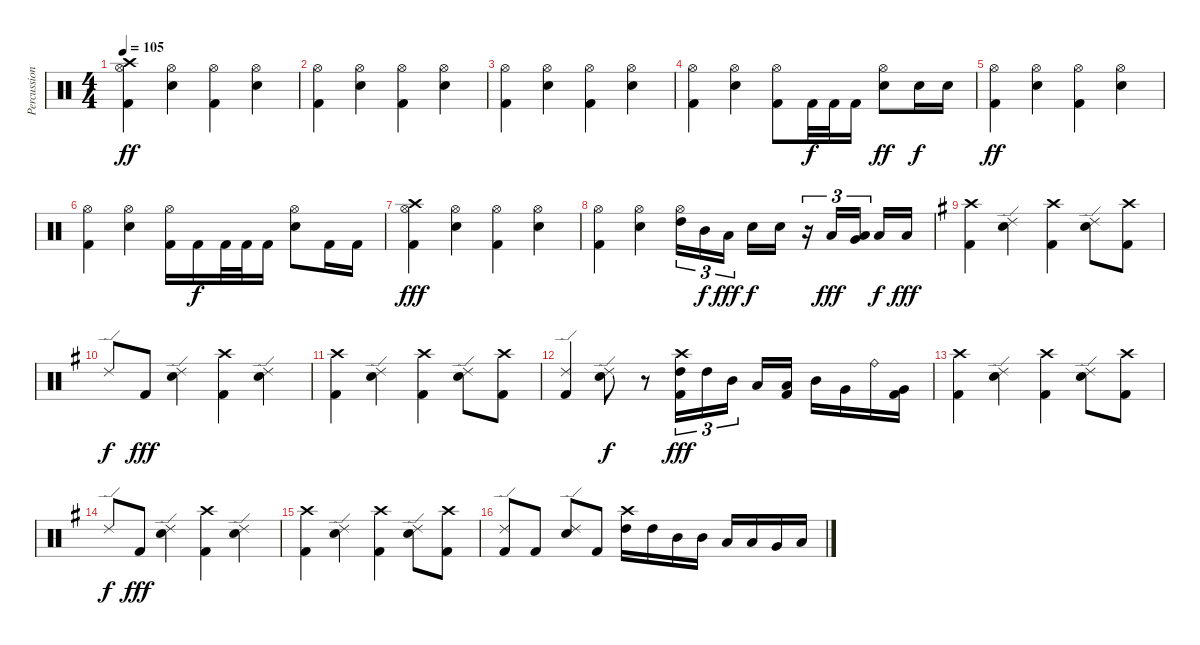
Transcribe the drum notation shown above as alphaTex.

\track ("Percussion" "Percussion") {instrument percussion}
\staff {score}
\articulation defaults
\ts (4 4)
\tempo 105
\clef neutral
\ks c
("Crash high (hit)" "Hi-Hat (open)" "Kick (hit) 2").4{dy ff} ("Hi-Hat (open)" "Electric Snare (hit)").4 ("Hi-Hat (open)" "Kick (hit) 2").4 ("Hi-Hat (open)" "Electric Snare (hit)").4 |
("Hi-Hat (open)" "Kick (hit) 2").4 ("Hi-Hat (open)" "Electric Snare (hit)").4 ("Hi-Hat (open)" "Kick (hit) 2").4 ("Hi-Hat (open)" "Electric Snare (hit)").4 |
("Hi-Hat (open)" "Kick (hit) 2").4 ("Hi-Hat (open)" "Electric Snare (hit)").4 ("Hi-Hat (open)" "Kick (hit) 2").4 ("Hi-Hat (open)" "Electric Snare (hit)").4 |
("Hi-Hat (open)" "Kick (hit) 2").4 ("Hi-Hat (open)" "Electric Snare (hit)").4 ("Hi-Hat (open)" "Kick (hit) 2").8 "Kick (hit) 2".32{dy f} "Kick (hit) 2".32 "Kick (hit) 2".16 ("Hi-Hat (open)" "Electric Snare (hit)").8{dy ff} "Electric Snare (hit)".16{dy f} "Electric Snare (hit)".16 |
("Hi-Hat (open)" "Kick (hit) 2").4{dy ff} ("Hi-Hat (open)" "Electric Snare (hit)").4 ("Hi-Hat (open)" "Kick (hit) 2").4 ("Hi-Hat (open)" "Electric Snare (hit)").4 |
("Hi-Hat (open)" "Kick (hit) 2").4 ("Hi-Hat (open)" "Electric Snare (hit)").4 ("Hi-Hat (open)" "Kick (hit) 2").16 "Kick (hit) 2".16{dy f} "Kick (hit) 2".32 "Kick (hit) 2".32 "Kick (hit) 2".16 ("Hi-Hat (open)" "Electric Snare (hit)").8 "Kick (hit) 2".16 "Kick (hit) 2".16 |
("Crash high (hit)" "Hi-Hat (open)" "Kick (hit) 2").4{dy fff} ("Hi-Hat (open)" "Electric Snare (hit)").4 ("Hi-Hat (open)" "Kick (hit) 2").4 ("Hi-Hat (open)" "Electric Snare (hit)").4 |
("Hi-Hat (open)" "Kick (hit) 2").4 ("Hi-Hat (open)" "Electric Snare (hit)").4 ("Hi-Hat (open)" "High Tom (hit)").16{tu (3 2)} "Mid Tom (hit)".16{tu (3 2) dy f} "Low Tom (hit)".16{tu (3 2) dy fff beam splitsecondary} "Electric Snare (hit)".16{dy f} "Electric Snare (hit)".16 r.16{tu (3 2)} "Low Tom (hit)".16{tu (3 2) dy fff} ("Low Floor Tom (hit)" "Very Low Tom (hit)").16{tu (3 2) beam splitsecondary} "Low Floor Tom (hit)".16{dy f} "Low Floor Tom (hit)".16{dy fff} |
\ks g
("Crash high (hit)" "Kick (hit) 2").4 ("Ride (edge) 2" "Electric Snare (hit)").4 ("Crash high (hit)" "Kick (hit) 2").4 ("Ride (edge) 2" "Electric Snare (hit)").8 ("Crash high (hit)" "Kick (hit) 2").8 |
"Ride (edge) 2".8{dy f} "Kick (hit) 2".8{dy fff} ("Ride (edge) 2" "Electric Snare (hit)").4 ("Crash high (hit)" "Kick (hit) 2").4 ("Ride (edge) 2" "Electric Snare (hit)").4 |
("Crash high (hit)" "Kick (hit) 2").4 ("Ride (edge) 2" "Electric Snare (hit)").4 ("Crash high (hit)" "Kick (hit) 2").4 ("Ride (edge) 2" "Electric Snare (hit)").8 ("Crash high (hit)" "Kick (hit) 2").8 |
("Ride (edge) 2" "Kick (hit) 2").4 ("Ride (edge) 2" "Electric Snare (hit)").8{dy f} r.8 ("Crash high (hit)" "High Tom (hit)" "Kick (hit) 2").16{tu (3 2) dy fff} "High Tom (hit)".16{tu (3 2)} "Mid Tom (hit)".16{tu (3 2) beam splitsecondary} "Low Tom (hit)".16 ("Low Tom (hit)" "Kick (hit) 2").16 "Mid Tom (hit)".16 "Very Low Tom (hit)".16 "Ride (bell)".16 ("Very Low Tom (hit)" "Kick (hit) 2").16 |
("Crash high (hit)" "Kick (hit) 2").4 ("Ride (edge) 2" "Electric Snare (hit)").4 ("Crash high (hit)" "Kick (hit) 2").4 ("Ride (edge) 2" "Electric Snare (hit)").8 ("Crash high (hit)" "Kick (hit) 2").8 |
"Ride (edge) 2".8{dy f} "Kick (hit) 2".8{dy fff} ("Ride (edge) 2" "Electric Snare (hit)").4 ("Crash high (hit)" "Kick (hit) 2").4 ("Ride (edge) 2" "Electric Snare (hit)").4 |
("Crash high (hit)" "Kick (hit) 2").4 ("Ride (edge) 2" "Electric Snare (hit)").4 ("Crash high (hit)" "Kick (hit) 2").4 ("Ride (edge) 2" "Electric Snare (hit)").8 ("Crash high (hit)" "Kick (hit) 2").8 |
("Ride (edge) 2" "Kick (hit) 2").8 "Kick (hit) 2".8 ("Ride (edge) 2" "Electric Snare (hit)").8 "Kick (hit) 2".8 ("Crash high (hit)" "High Tom (hit)").16 "High Tom (hit)".16 "Mid Tom (hit)".16 "Mid Tom (hit)".16 "Low Tom (hit)".16 "Low Tom (hit)".16 "Very Low Tom (hit)".16 "Low Floor Tom (hit)".16
